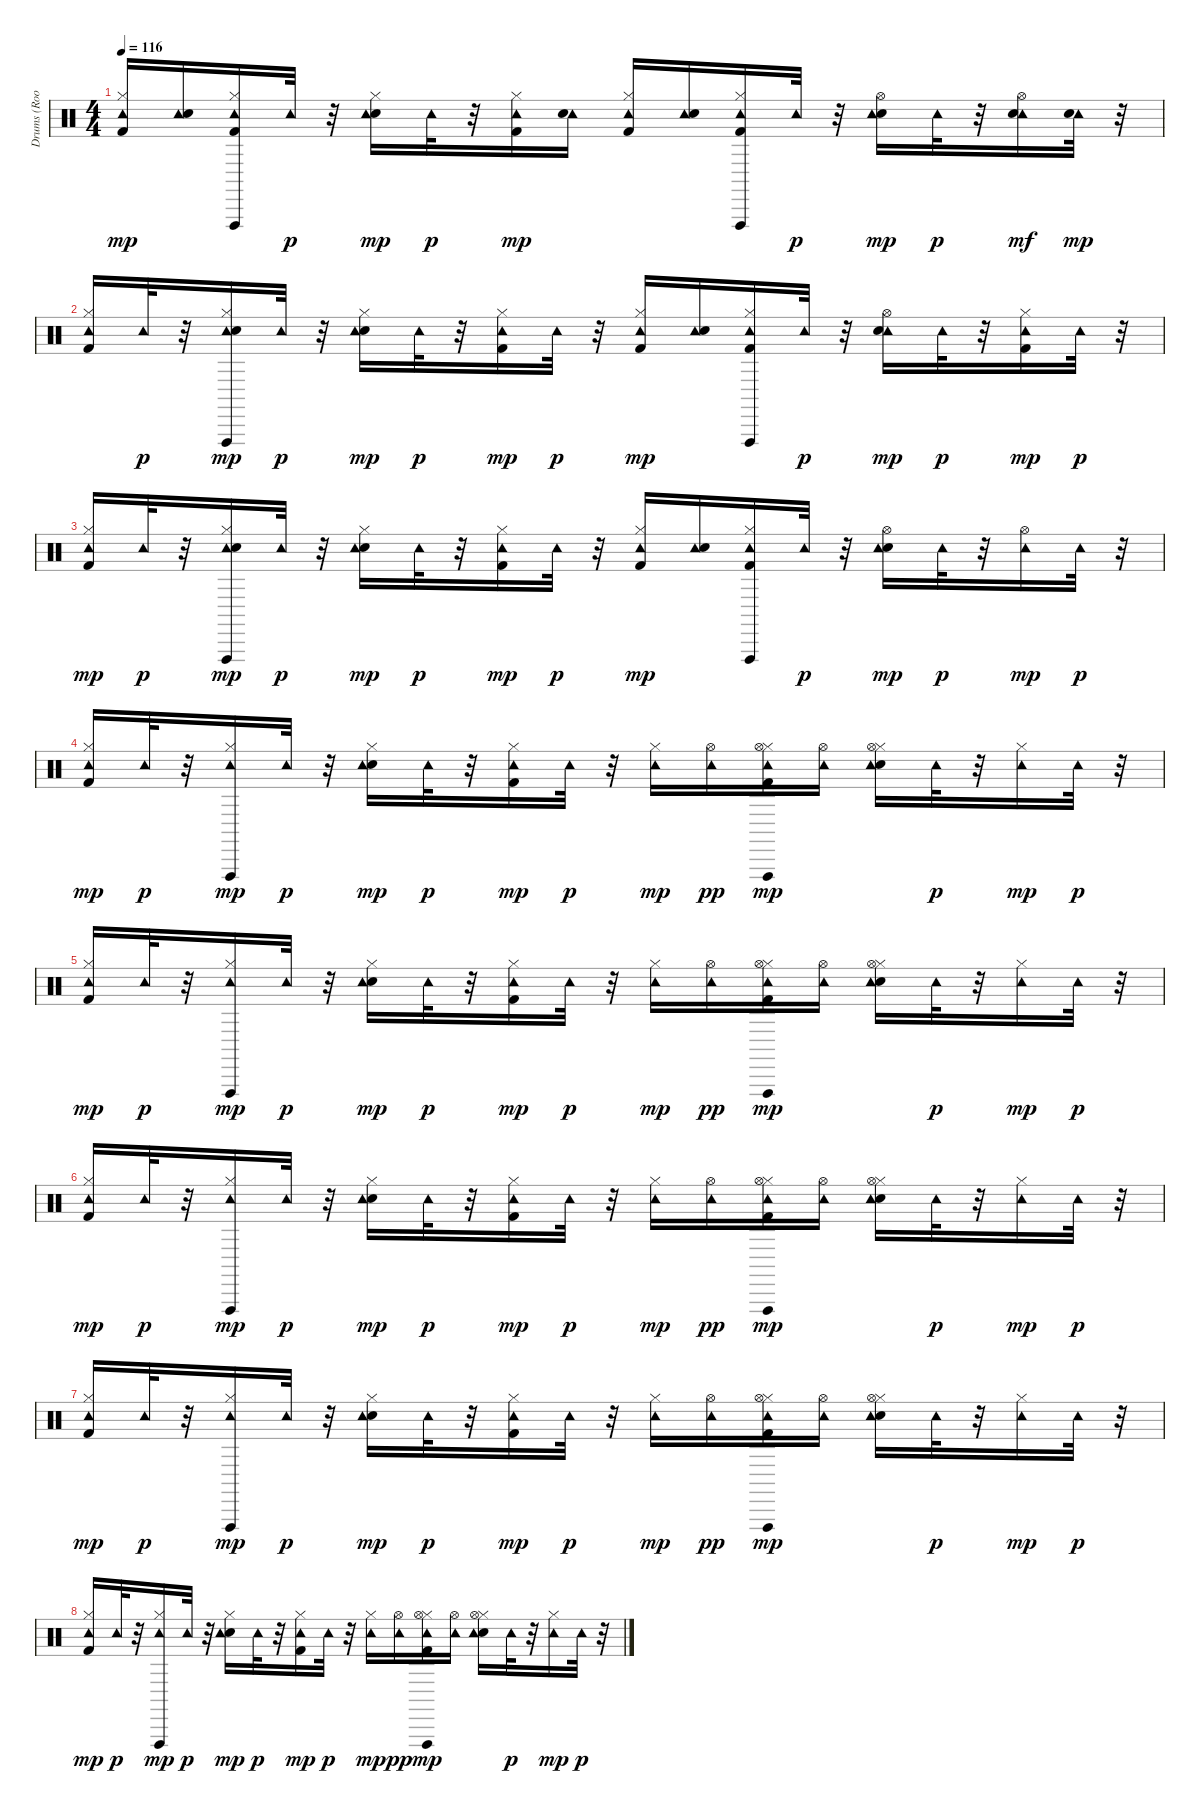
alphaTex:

\track ("Drums (Room Kit)    " "Drums (Roo") {instrument percussion}
\staff {score}
\articulation defaults
\ts (4 4)
\tempo 116
\clef neutral
\ks c
("Hi-Hat (closed)" "Kick (hit) 2" "Tambourine (hit)").16{dy mp} ("Tambourine (hit)" "Snare (hit) 2").16 ("Hi-Hat (closed)" "Tambourine (hit)" "Vibraslap (hit)" "Kick (hit) 2").16 "Tambourine (hit)".32{dy p} r.32 ("Snare (hit) 2" "Tambourine (hit)" "Hi-Hat (closed)").16{dy mp} "Tambourine (hit)".32{dy p} r.32 ("Kick (hit) 2" "Tambourine (hit)" "Hi-Hat (closed)").16{dy mp} ("Tambourine (hit)" "Snare (hit) 2").16 ("Hi-Hat (closed)" "Tambourine (hit)" "Kick (hit) 2").16 ("Tambourine (hit)" "Snare (hit) 2").16 ("Kick (hit) 2" "Tambourine (hit)" "Vibraslap (hit)" "Hi-Hat (closed)").16 "Tambourine (hit)".32{dy p} r.32 ("Snare (hit) 2" "Tambourine (hit)" "Hi-Hat (open)").16{dy mp} "Tambourine (hit)".32{dy p} r.32 ("Tambourine (hit)" "Hi-Hat (open)" "Snare (hit) 2").16{dy mf} ("Tambourine (hit)" "Snare (hit) 2").32{dy mp} r.32 |
("Kick (hit) 2" "Hi-Hat (closed)" "Tambourine (hit)").16 "Tambourine (hit)".32{dy p} r.32 ("Hi-Hat (closed)" "Tambourine (hit)" "Vibraslap (hit)" "Snare (hit) 2").16{dy mp} "Tambourine (hit)".32{dy p} r.32 ("Snare (hit) 2" "Hi-Hat (closed)" "Tambourine (hit)").16{dy mp} "Tambourine (hit)".32{dy p} r.32 ("Kick (hit) 2" "Tambourine (hit)" "Hi-Hat (closed)").16{dy mp} "Tambourine (hit)".32{dy p} r.32 ("Hi-Hat (closed)" "Tambourine (hit)" "Kick (hit) 2").16{dy mp} ("Tambourine (hit)" "Snare (hit) 2").16 ("Tambourine (hit)" "Vibraslap (hit)" "Hi-Hat (closed)" "Kick (hit) 2").16 "Tambourine (hit)".32{dy p} r.32 ("Tambourine (hit)" "Hi-Hat (open)" "Snare (hit) 2").16{dy mp} "Tambourine (hit)".32{dy p} r.32 ("Hi-Hat (closed)" "Tambourine (hit)" "Kick (hit) 2").16{dy mp} "Tambourine (hit)".32{dy p} r.32 |
("Hi-Hat (closed)" "Kick (hit) 2" "Tambourine (hit)").16{dy mp} "Tambourine (hit)".32{dy p} r.32 ("Hi-Hat (closed)" "Tambourine (hit)" "Vibraslap (hit)" "Snare (hit) 2").16{dy mp} "Tambourine (hit)".32{dy p} r.32 ("Hi-Hat (closed)" "Snare (hit) 2" "Tambourine (hit)").16{dy mp} "Tambourine (hit)".32{dy p} r.32 ("Kick (hit) 2" "Tambourine (hit)" "Hi-Hat (closed)").16{dy mp} "Tambourine (hit)".32{dy p} r.32 ("Hi-Hat (closed)" "Tambourine (hit)" "Kick (hit) 2").16{dy mp} ("Tambourine (hit)" "Snare (hit) 2").16 ("Kick (hit) 2" "Tambourine (hit)" "Vibraslap (hit)" "Hi-Hat (closed)").16 "Tambourine (hit)".32{dy p} r.32 ("Snare (hit) 2" "Tambourine (hit)" "Hi-Hat (open)").16{dy mp} "Tambourine (hit)".32{dy p} r.32 ("Tambourine (hit)" "Hi-Hat (open)").16{dy mp} "Tambourine (hit)".32{dy p} r.32 |
("Kick (hit) 2" "Hi-Hat (closed)" "Tambourine (hit)").16{dy mp} "Tambourine (hit)".32{dy p} r.32 ("Hi-Hat (closed)" "Tambourine (hit)" "Vibraslap (hit)").16{dy mp} "Tambourine (hit)".32{dy p} r.32 ("Snare (hit) 2" "Hi-Hat (closed)" "Tambourine (hit)").16{dy mp} "Tambourine (hit)".32{dy p} r.32 ("Kick (hit) 2" "Hi-Hat (closed)" "Tambourine (hit)").16{dy mp} "Tambourine (hit)".32{dy p} r.32 ("Hi-Hat (closed)" "Tambourine (hit)").16{dy mp} ("Tambourine (hit)" "Hi-Hat (open)").16{dy pp} ("Kick (hit) 2" "Hi-Hat (closed)" "Tambourine (hit)" "Hi-Hat (open)" "Vibraslap (hit)").16{dy mp} ("Tambourine (hit)" "Hi-Hat (open)").16 ("Snare (hit) 2" "Hi-Hat (closed)" "Tambourine (hit)" "Hi-Hat (open)").16 "Tambourine (hit)".32{dy p} r.32 ("Hi-Hat (closed)" "Tambourine (hit)").16{dy mp} "Tambourine (hit)".32{dy p} r.32 |
("Hi-Hat (closed)" "Kick (hit) 2" "Tambourine (hit)").16{dy mp} "Tambourine (hit)".32{dy p} r.32 ("Hi-Hat (closed)" "Tambourine (hit)" "Vibraslap (hit)").16{dy mp} "Tambourine (hit)".32{dy p} r.32 ("Hi-Hat (closed)" "Snare (hit) 2" "Tambourine (hit)").16{dy mp} "Tambourine (hit)".32{dy p} r.32 ("Hi-Hat (closed)" "Kick (hit) 2" "Tambourine (hit)").16{dy mp} "Tambourine (hit)".32{dy p} r.32 ("Hi-Hat (closed)" "Tambourine (hit)").16{dy mp} ("Tambourine (hit)" "Hi-Hat (open)").16{dy pp} ("Hi-Hat (closed)" "Kick (hit) 2" "Tambourine (hit)" "Hi-Hat (open)" "Vibraslap (hit)").16{dy mp} ("Tambourine (hit)" "Hi-Hat (open)").16 ("Hi-Hat (closed)" "Snare (hit) 2" "Tambourine (hit)" "Hi-Hat (open)").16 "Tambourine (hit)".32{dy p} r.32 ("Hi-Hat (closed)" "Tambourine (hit)").16{dy mp} "Tambourine (hit)".32{dy p} r.32 |
("Kick (hit) 2" "Hi-Hat (closed)" "Tambourine (hit)").16{dy mp} "Tambourine (hit)".32{dy p} r.32 ("Hi-Hat (closed)" "Tambourine (hit)" "Vibraslap (hit)").16{dy mp} "Tambourine (hit)".32{dy p} r.32 ("Snare (hit) 2" "Hi-Hat (closed)" "Tambourine (hit)").16{dy mp} "Tambourine (hit)".32{dy p} r.32 ("Kick (hit) 2" "Hi-Hat (closed)" "Tambourine (hit)").16{dy mp} "Tambourine (hit)".32{dy p} r.32 ("Hi-Hat (closed)" "Tambourine (hit)").16{dy mp} ("Tambourine (hit)" "Hi-Hat (open)").16{dy pp} ("Kick (hit) 2" "Hi-Hat (closed)" "Tambourine (hit)" "Hi-Hat (open)" "Vibraslap (hit)").16{dy mp} ("Tambourine (hit)" "Hi-Hat (open)").16 ("Snare (hit) 2" "Hi-Hat (closed)" "Tambourine (hit)" "Hi-Hat (open)").16 "Tambourine (hit)".32{dy p} r.32 ("Hi-Hat (closed)" "Tambourine (hit)").16{dy mp} "Tambourine (hit)".32{dy p} r.32 |
("Hi-Hat (closed)" "Kick (hit) 2" "Tambourine (hit)").16{dy mp} "Tambourine (hit)".32{dy p} r.32 ("Hi-Hat (closed)" "Tambourine (hit)" "Vibraslap (hit)").16{dy mp} "Tambourine (hit)".32{dy p} r.32 ("Hi-Hat (closed)" "Snare (hit) 2" "Tambourine (hit)").16{dy mp} "Tambourine (hit)".32{dy p} r.32 ("Hi-Hat (closed)" "Kick (hit) 2" "Tambourine (hit)").16{dy mp} "Tambourine (hit)".32{dy p} r.32 ("Hi-Hat (closed)" "Tambourine (hit)").16{dy mp} ("Tambourine (hit)" "Hi-Hat (open)").16{dy pp} ("Hi-Hat (closed)" "Kick (hit) 2" "Tambourine (hit)" "Hi-Hat (open)" "Vibraslap (hit)").16{dy mp} ("Tambourine (hit)" "Hi-Hat (open)").16 ("Hi-Hat (closed)" "Snare (hit) 2" "Tambourine (hit)" "Hi-Hat (open)").16 "Tambourine (hit)".32{dy p} r.32 ("Hi-Hat (closed)" "Tambourine (hit)").16{dy mp} "Tambourine (hit)".32{dy p} r.32 |
("Kick (hit) 2" "Hi-Hat (closed)" "Tambourine (hit)").16{dy mp} "Tambourine (hit)".32{dy p} r.32 ("Hi-Hat (closed)" "Tambourine (hit)" "Vibraslap (hit)").16{dy mp} "Tambourine (hit)".32{dy p} r.32 ("Snare (hit) 2" "Hi-Hat (closed)" "Tambourine (hit)").16{dy mp} "Tambourine (hit)".32{dy p} r.32 ("Kick (hit) 2" "Hi-Hat (closed)" "Tambourine (hit)").16{dy mp} "Tambourine (hit)".32{dy p} r.32 ("Hi-Hat (closed)" "Tambourine (hit)").16{dy mp} ("Tambourine (hit)" "Hi-Hat (open)").16{dy pp} ("Kick (hit) 2" "Hi-Hat (closed)" "Tambourine (hit)" "Hi-Hat (open)" "Vibraslap (hit)").16{dy mp} ("Tambourine (hit)" "Hi-Hat (open)").16 ("Snare (hit) 2" "Hi-Hat (closed)" "Tambourine (hit)" "Hi-Hat (open)").16 "Tambourine (hit)".32{dy p} r.32 ("Hi-Hat (closed)" "Tambourine (hit)").16{dy mp} "Tambourine (hit)".32{dy p} r.32
